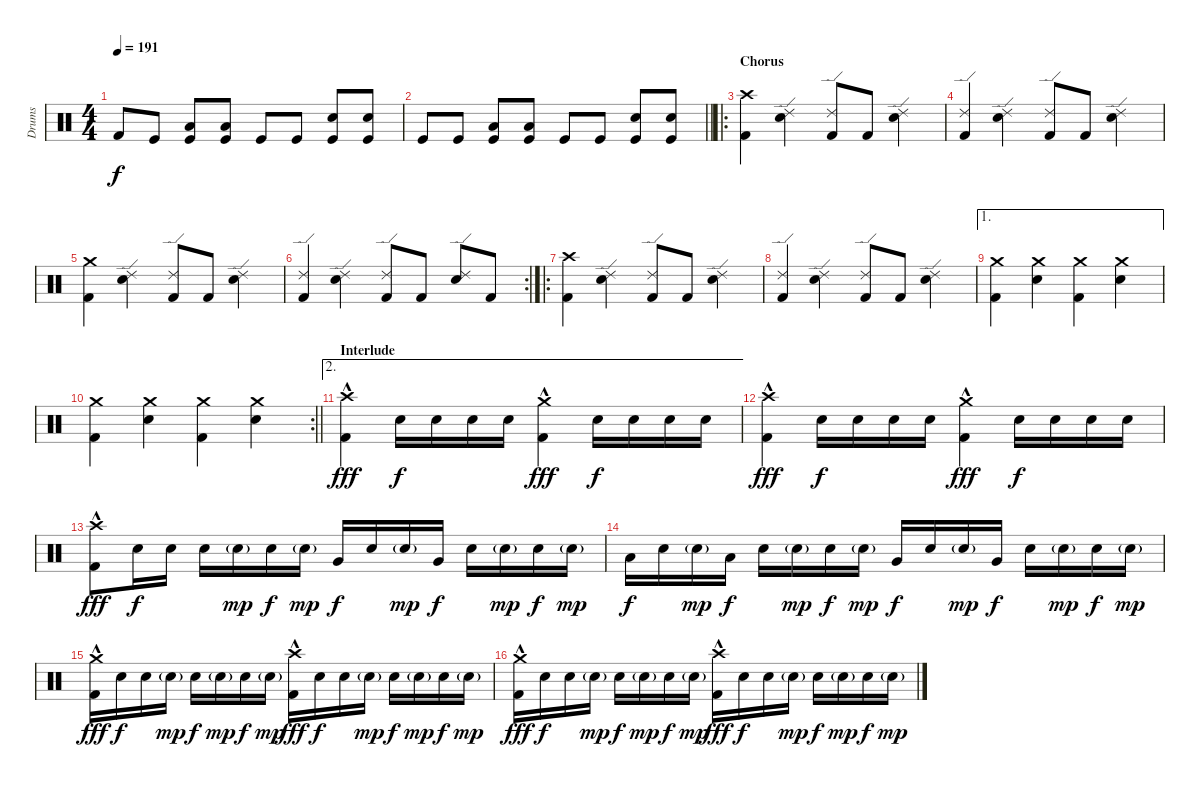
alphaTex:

\track ("Drums" "Drums") {instrument percussion}
\staff {score}
\articulation defaults
\ts (4 4)
\tempo 191
\clef neutral
\ks c "Kick (hit) 2".8{dy f} "Kick (hit)".8
("Low Floor Tom (hit)" "Kick (hit)").8 ("Low Floor Tom (hit)" "Kick (hit)").8 "Kick (hit)".8 "Kick (hit)".8 ("Electric Snare (hit)" "Kick (hit)").8 ("Electric Snare (hit)" "Kick (hit)").8 |
\barLineRight lightlight "Kick (hit)".8 "Kick (hit)".8
("Low Floor Tom (hit)" "Kick (hit)").8 ("Low Floor Tom (hit)" "Kick (hit)").8 "Kick (hit)".8 "Kick (hit)".8 ("Electric Snare (hit)" "Kick (hit)").8 ("Electric Snare (hit)" "Kick (hit)").8 |
\ro
\section ("" "Chorus")
("Crash high (hit)" "Kick (hit) 2").4 ("Ride (edge) 2" "Snare (hit) 2").4 ("Ride (edge) 2" "Kick (hit) 2").8 "Kick (hit) 2".8 ("Ride (edge) 2" "Snare (hit) 2").4 |
("Ride (edge) 2" "Kick (hit) 2").4 ("Ride (edge) 2" "Snare (hit) 2").4 ("Ride (edge) 2" "Kick (hit) 2").8 "Kick (hit) 2".8 ("Ride (edge) 2" "Snare (hit) 2").4 |
("Crash medium (hit)" "Kick (hit) 2").4 ("Ride (edge) 2" "Snare (hit) 2").4 ("Ride (edge) 2" "Kick (hit) 2").8 "Kick (hit) 2".8 ("Ride (edge) 2" "Snare (hit) 2").4 |
\rc 2
("Ride (edge) 2" "Kick (hit) 2").4 ("Ride (edge) 2" "Snare (hit) 2").4 ("Ride (edge) 2" "Kick (hit) 2").8 "Kick (hit) 2".8 ("Ride (edge) 2" "Snare (hit) 2").8 "Kick (hit) 2".8 |
\ro
("Crash high (hit)" "Kick (hit) 2").4 ("Ride (edge) 2" "Snare (hit) 2").4 ("Ride (edge) 2" "Kick (hit) 2").8 "Kick (hit) 2".8 ("Ride (edge) 2" "Snare (hit) 2").4 |
("Ride (edge) 2" "Kick (hit) 2").4 ("Ride (edge) 2" "Snare (hit) 2").4 ("Ride (edge) 2" "Kick (hit) 2").8 "Kick (hit) 2".8 ("Ride (edge) 2" "Snare (hit) 2").4 |
\ae 1
("Crash medium (hit)" "Kick (hit) 2").4 ("Crash medium (hit)" "Snare (hit) 2").4 ("Crash medium (hit)" "Kick (hit) 2").4 ("Crash medium (hit)" "Snare (hit) 2").4 |
\rc 2
\barLineRight lightlight
("Crash medium (hit)" "Kick (hit) 2").4 ("Crash medium (hit)" "Snare (hit) 2").4 ("Crash medium (hit)" "Kick (hit) 2").4 ("Crash medium (hit)" "Snare (hit) 2").4 |
\ae 2
\section ("" "Interlude")
("Crash high (hit)"{hac} "Kick (hit) 2"{hac}).4{dy fff} "Electric Snare (hit)".16{dy f} "Electric Snare (hit)".16 "Electric Snare (hit)".16 "Electric Snare (hit)".16 ("Crash medium (hit)"{hac} "Kick (hit) 2"{hac}).4{dy fff} "Electric Snare (hit)".16{dy f} "Electric Snare (hit)".16 "Electric Snare (hit)".16 "Electric Snare (hit)".16 |
("Crash high (hit)"{hac} "Kick (hit) 2"{hac}).4{dy fff} "Electric Snare (hit)".16{dy f} "Electric Snare (hit)".16 "Electric Snare (hit)".16 "Electric Snare (hit)".16 ("Crash medium (hit)"{hac} "Kick (hit) 2"{hac}).4{dy fff} "Electric Snare (hit)".16{dy f} "Electric Snare (hit)".16 "Electric Snare (hit)".16 "Electric Snare (hit)".16 |
("Crash high (hit)"{hac} "Kick (hit) 2"{hac}).8{dy fff} "Electric Snare (hit)".16{dy f} "Electric Snare (hit)".16 "Electric Snare (hit)".16 "Electric Snare (hit)"{g}.16{dy mp} "Electric Snare (hit)".16{dy f} "Electric Snare (hit)"{g}.16{dy mp} "Very Low Tom (hit)".16{dy f} "Electric Snare (hit)".16 "Electric Snare (hit)"{g}.16{dy mp} "Very Low Tom (hit)".16{dy f} "Electric Snare (hit)".16 "Electric Snare (hit)"{g}.16{dy mp} "Electric Snare (hit)".16{dy f} "Electric Snare (hit)"{g}.16{dy mp} |
"Low Floor Tom (hit)".16{dy f} "Electric Snare (hit)".16 "Electric Snare (hit)"{g}.16{dy mp} "Low Floor Tom (hit)".16{dy f} "Electric Snare (hit)".16 "Electric Snare (hit)"{g}.16{dy mp} "Electric Snare (hit)".16{dy f} "Electric Snare (hit)"{g}.16{dy mp} "Very Low Tom (hit)".16{dy f} "Electric Snare (hit)".16 "Electric Snare (hit)"{g}.16{dy mp} "Very Low Tom (hit)".16{dy f} "Electric Snare (hit)".16 "Electric Snare (hit)"{g}.16{dy mp} "Electric Snare (hit)".16{dy f} "Electric Snare (hit)"{g}.16{dy mp} |
("Crash medium (hit)"{hac} "Kick (hit) 2"{hac}).16{dy fff} "Electric Snare (hit)".16{dy f} "Electric Snare (hit)".16 "Electric Snare (hit)"{g}.16{dy mp} "Electric Snare (hit)".16{dy f} "Electric Snare (hit)"{g}.16{dy mp} "Electric Snare (hit)".16{dy f} "Electric Snare (hit)"{g}.16{dy mp} ("Crash high (hit)"{hac} "Kick (hit) 2"{hac}).16{dy fff} "Electric Snare (hit)".16{dy f} "Electric Snare (hit)".16 "Electric Snare (hit)"{g}.16{dy mp} "Electric Snare (hit)".16{dy f} "Electric Snare (hit)"{g}.16{dy mp} "Electric Snare (hit)".16{dy f} "Electric Snare (hit)"{g}.16{dy mp} |
("Crash medium (hit)"{hac} "Kick (hit) 2"{hac}).16{dy fff} "Electric Snare (hit)".16{dy f} "Electric Snare (hit)".16 "Electric Snare (hit)"{g}.16{dy mp} "Electric Snare (hit)".16{dy f} "Electric Snare (hit)"{g}.16{dy mp} "Electric Snare (hit)".16{dy f} "Electric Snare (hit)"{g}.16{dy mp} ("Crash high (hit)"{hac} "Kick (hit) 2"{hac}).16{dy fff} "Electric Snare (hit)".16{dy f} "Electric Snare (hit)".16 "Electric Snare (hit)"{g}.16{dy mp} "Electric Snare (hit)".16{dy f} "Electric Snare (hit)"{g}.16{dy mp} "Electric Snare (hit)".16{dy f} "Electric Snare (hit)"{g}.16{dy mp}
